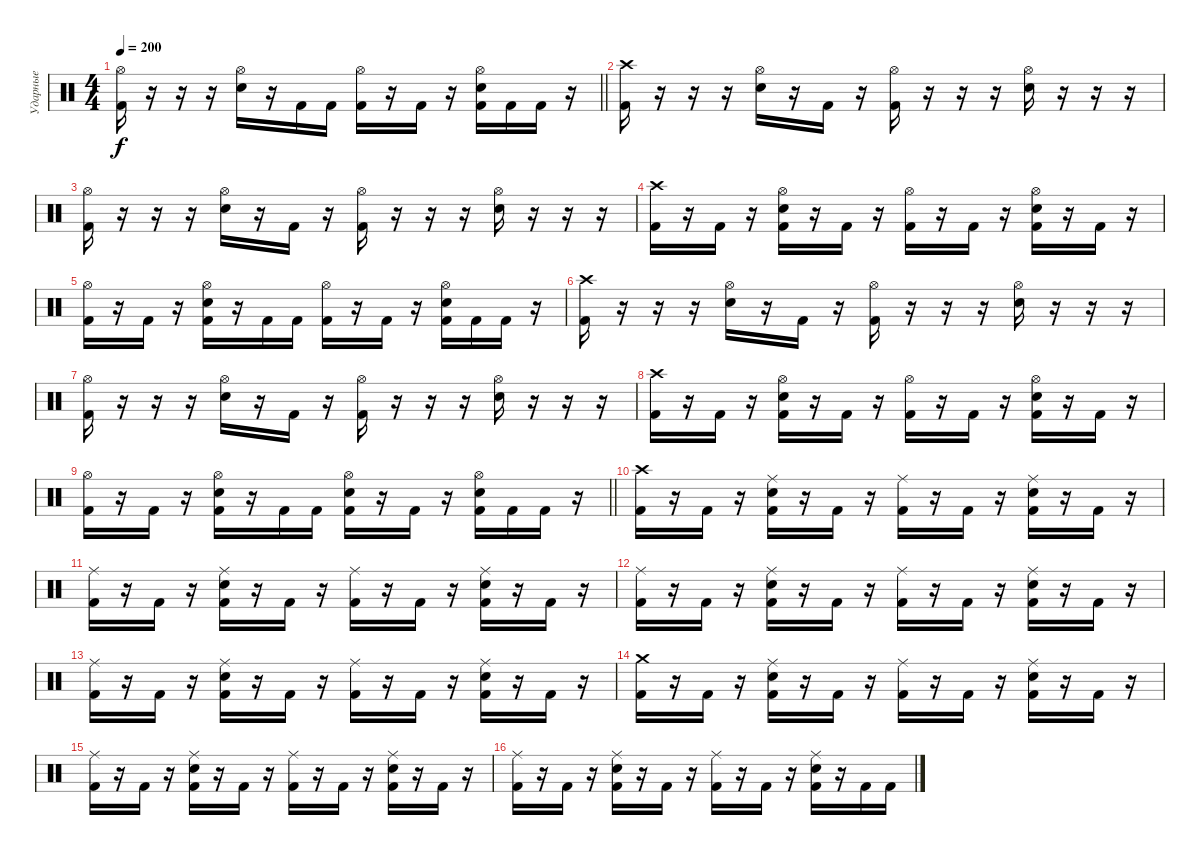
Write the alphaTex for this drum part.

\track ("Ударные" "Ударные") {instrument percussion}
\staff {score}
\articulation defaults
\ts (4 4)
\tempo 200
\clef neutral
\barLineRight lightlight
\ks c
("Hi-Hat (open)" "Kick (hit) 2").16{dy f} r.16 r.16 r.16 ("Hi-Hat (open)" "Electric Snare (hit)").16 r.16 "Kick (hit) 2".16 "Kick (hit) 2".16 ("Hi-Hat (open)" "Kick (hit) 2").16 r.16 "Kick (hit) 2".16 r.16 ("Hi-Hat (open)" "Electric Snare (hit)" "Kick (hit) 2").16 "Kick (hit) 2".16 "Kick (hit) 2".16 r.16 |
\section ("" "")
("Crash high (hit)" "Kick (hit) 2").16 r.16 r.16 r.16 ("Hi-Hat (open)" "Electric Snare (hit)").16 r.16 "Kick (hit) 2".16 r.16 ("Hi-Hat (open)" "Kick (hit) 2").16 r.16 r.16 r.16 ("Hi-Hat (open)" "Electric Snare (hit)").16 r.16 r.16 r.16 |
("Hi-Hat (open)" "Kick (hit) 2").16 r.16 r.16 r.16 ("Hi-Hat (open)" "Electric Snare (hit)").16 r.16 "Kick (hit) 2".16 r.16 ("Hi-Hat (open)" "Kick (hit) 2").16 r.16 r.16 r.16 ("Hi-Hat (open)" "Electric Snare (hit)").16 r.16 r.16 r.16 |
("Crash high (hit)" "Kick (hit) 2").16 r.16 "Kick (hit) 2".16 r.16 ("Hi-Hat (open)" "Electric Snare (hit)" "Kick (hit) 2").16 r.16 "Kick (hit) 2".16 r.16 ("Hi-Hat (open)" "Kick (hit) 2").16 r.16 "Kick (hit) 2".16 r.16 ("Hi-Hat (open)" "Electric Snare (hit)" "Kick (hit) 2").16 r.16 "Kick (hit) 2".16 r.16 |
("Hi-Hat (open)" "Kick (hit) 2").16 r.16 "Kick (hit) 2".16 r.16 ("Hi-Hat (open)" "Electric Snare (hit)" "Kick (hit) 2").16 r.16 "Kick (hit) 2".16 "Kick (hit) 2".16 ("Hi-Hat (open)" "Kick (hit) 2").16 r.16 "Kick (hit) 2".16 r.16 ("Hi-Hat (open)" "Electric Snare (hit)" "Kick (hit) 2").16 "Kick (hit) 2".16 "Kick (hit) 2".16 r.16 |
("Crash high (hit)" "Kick (hit) 2").16 r.16 r.16 r.16 ("Hi-Hat (open)" "Electric Snare (hit)").16 r.16 "Kick (hit) 2".16 r.16 ("Hi-Hat (open)" "Kick (hit) 2").16 r.16 r.16 r.16 ("Hi-Hat (open)" "Electric Snare (hit)").16 r.16 r.16 r.16 |
("Hi-Hat (open)" "Kick (hit) 2").16 r.16 r.16 r.16 ("Hi-Hat (open)" "Electric Snare (hit)").16 r.16 "Kick (hit) 2".16 r.16 ("Hi-Hat (open)" "Kick (hit) 2").16 r.16 r.16 r.16 ("Hi-Hat (open)" "Electric Snare (hit)").16 r.16 r.16 r.16 |
("Crash high (hit)" "Kick (hit) 2").16 r.16 "Kick (hit) 2".16 r.16 ("Hi-Hat (open)" "Electric Snare (hit)" "Kick (hit) 2").16 r.16 "Kick (hit) 2".16 r.16 ("Hi-Hat (open)" "Kick (hit) 2").16 r.16 "Kick (hit) 2".16 r.16 ("Hi-Hat (open)" "Electric Snare (hit)" "Kick (hit) 2").16 r.16 "Kick (hit) 2".16 r.16 |
\barLineRight lightlight
("Hi-Hat (open)" "Kick (hit) 2").16 r.16 "Kick (hit) 2".16 r.16 ("Hi-Hat (open)" "Electric Snare (hit)" "Kick (hit) 2").16 r.16 "Kick (hit) 2".16 "Kick (hit) 2".16 ("Hi-Hat (open)" "Electric Snare (hit)" "Kick (hit) 2").16 r.16 "Kick (hit) 2".16 r.16 ("Hi-Hat (open)" "Electric Snare (hit)" "Kick (hit) 2").16 "Kick (hit) 2".16 "Kick (hit) 2".16 r.16 |
\section ("" "")
("Crash high (hit)" "Kick (hit) 2").16 r.16 "Kick (hit) 2".16 r.16 ("Ride (middle)" "Electric Snare (hit)" "Kick (hit) 2").16 r.16 "Kick (hit) 2".16 r.16 ("Ride (middle)" "Kick (hit) 2").16 r.16 "Kick (hit) 2".16 r.16 ("Ride (middle)" "Electric Snare (hit)" "Kick (hit) 2").16 r.16 "Kick (hit) 2".16 r.16 |
("Ride (middle)" "Kick (hit) 2").16 r.16 "Kick (hit) 2".16 r.16 ("Ride (middle)" "Electric Snare (hit)" "Kick (hit) 2").16 r.16 "Kick (hit) 2".16 r.16 ("Ride (middle)" "Kick (hit) 2").16 r.16 "Kick (hit) 2".16 r.16 ("Ride (middle)" "Electric Snare (hit)" "Kick (hit) 2").16 r.16 "Kick (hit) 2".16 r.16 |
("Ride (middle)" "Kick (hit) 2").16 r.16 "Kick (hit) 2".16 r.16 ("Ride (middle)" "Electric Snare (hit)" "Kick (hit) 2").16 r.16 "Kick (hit) 2".16 r.16 ("Ride (middle)" "Kick (hit) 2").16 r.16 "Kick (hit) 2".16 r.16 ("Ride (middle)" "Electric Snare (hit)" "Kick (hit) 2").16 r.16 "Kick (hit) 2".16 r.16 |
("Ride (middle)" "Kick (hit) 2").16 r.16 "Kick (hit) 2".16 r.16 ("Ride (middle)" "Electric Snare (hit)" "Kick (hit) 2").16 r.16 "Kick (hit) 2".16 r.16 ("Ride (middle)" "Kick (hit) 2").16 r.16 "Kick (hit) 2".16 r.16 ("Ride (middle)" "Electric Snare (hit)" "Kick (hit) 2").16 r.16 "Kick (hit) 2".16 r.16 |
("Crash medium (hit)" "Kick (hit) 2").16 r.16 "Kick (hit) 2".16 r.16 ("Ride (middle)" "Electric Snare (hit)" "Kick (hit) 2").16 r.16 "Kick (hit) 2".16 r.16 ("Ride (middle)" "Kick (hit) 2").16 r.16 "Kick (hit) 2".16 r.16 ("Ride (middle)" "Electric Snare (hit)" "Kick (hit) 2").16 r.16 "Kick (hit) 2".16 r.16 |
("Ride (middle)" "Kick (hit) 2").16 r.16 "Kick (hit) 2".16 r.16 ("Ride (middle)" "Electric Snare (hit)" "Kick (hit) 2").16 r.16 "Kick (hit) 2".16 r.16 ("Ride (middle)" "Kick (hit) 2").16 r.16 "Kick (hit) 2".16 r.16 ("Ride (middle)" "Electric Snare (hit)" "Kick (hit) 2").16 r.16 "Kick (hit) 2".16 r.16 |
("Ride (middle)" "Kick (hit) 2").16 r.16 "Kick (hit) 2".16 r.16 ("Ride (middle)" "Electric Snare (hit)" "Kick (hit) 2").16 r.16 "Kick (hit) 2".16 r.16 ("Ride (middle)" "Kick (hit) 2").16 r.16 "Kick (hit) 2".16 r.16 ("Ride (middle)" "Electric Snare (hit)" "Kick (hit) 2").16 r.16 "Kick (hit) 2".16 "Kick (hit) 2".16
